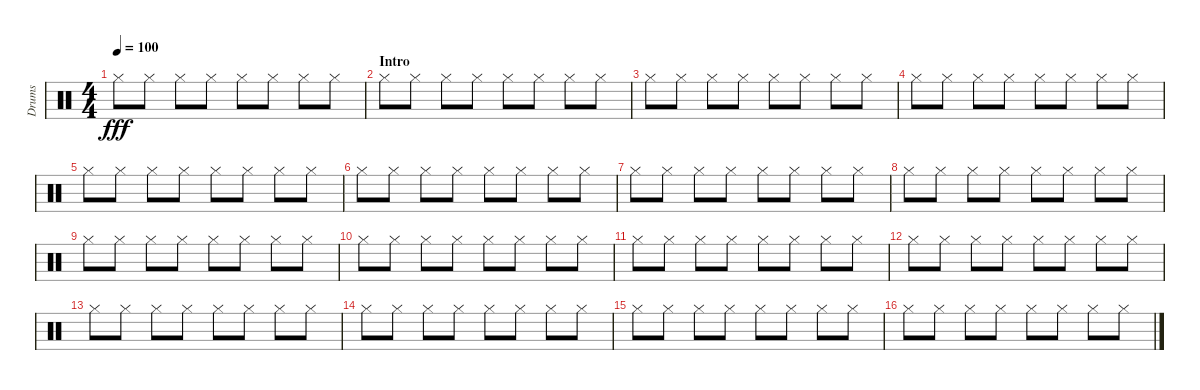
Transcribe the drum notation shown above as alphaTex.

\defaultSystemsLayout 4
\bracketExtendMode groupsimilarinstruments
\otherSystemsTrackNameOrientation horizontal
\track ("Prakarsh" "Drums") {instrument percussion}
\staff {score}
\articulation defaults
\ts (4 4)
\tempo 100
\clef neutral
\ks c "Hi-Hat (closed)".8{dy fff beam Down} "Hi-Hat (closed)".8{beam Down} "Hi-Hat (closed)".8{beam Down} "Hi-Hat (closed)".8{beam Down} "Hi-Hat (closed)".8{beam Down} "Hi-Hat (closed)".8{beam Down} "Hi-Hat (closed)".8{beam Down} "Hi-Hat (closed)".8{beam Down}
|
\section ("" "Intro")
"Hi-Hat (closed)".8{beam Down} "Hi-Hat (closed)".8{beam Down} "Hi-Hat (closed)".8{beam Down} "Hi-Hat (closed)".8{beam Down} "Hi-Hat (closed)".8{beam Down} "Hi-Hat (closed)".8{beam Down} "Hi-Hat (closed)".8{beam Down} "Hi-Hat (closed)".8{beam Down} |
"Hi-Hat (closed)".8{beam Down} "Hi-Hat (closed)".8{beam Down} "Hi-Hat (closed)".8{beam Down} "Hi-Hat (closed)".8{beam Down} "Hi-Hat (closed)".8{beam Down} "Hi-Hat (closed)".8{beam Down} "Hi-Hat (closed)".8{beam Down} "Hi-Hat (closed)".8{beam Down} |
"Hi-Hat (closed)".8{beam Down} "Hi-Hat (closed)".8{beam Down} "Hi-Hat (closed)".8{beam Down} "Hi-Hat (closed)".8{beam Down} "Hi-Hat (closed)".8{beam Down} "Hi-Hat (closed)".8{beam Down} "Hi-Hat (closed)".8{beam Down} "Hi-Hat (closed)".8{beam Down} |
"Hi-Hat (closed)".8{beam Down} "Hi-Hat (closed)".8{beam Down} "Hi-Hat (closed)".8{beam Down} "Hi-Hat (closed)".8{beam Down} "Hi-Hat (closed)".8{beam Down} "Hi-Hat (closed)".8{beam Down} "Hi-Hat (closed)".8{beam Down} "Hi-Hat (closed)".8{beam Down} |
"Hi-Hat (closed)".8{beam Down} "Hi-Hat (closed)".8{beam Down} "Hi-Hat (closed)".8{beam Down} "Hi-Hat (closed)".8{beam Down} "Hi-Hat (closed)".8{beam Down} "Hi-Hat (closed)".8{beam Down} "Hi-Hat (closed)".8{beam Down} "Hi-Hat (closed)".8{beam Down} |
"Hi-Hat (closed)".8{beam Down} "Hi-Hat (closed)".8{beam Down} "Hi-Hat (closed)".8{beam Down} "Hi-Hat (closed)".8{beam Down} "Hi-Hat (closed)".8{beam Down} "Hi-Hat (closed)".8{beam Down} "Hi-Hat (closed)".8{beam Down} "Hi-Hat (closed)".8{beam Down} |
"Hi-Hat (closed)".8{beam Down} "Hi-Hat (closed)".8{beam Down} "Hi-Hat (closed)".8{beam Down} "Hi-Hat (closed)".8{beam Down} "Hi-Hat (closed)".8{beam Down} "Hi-Hat (closed)".8{beam Down} "Hi-Hat (closed)".8{beam Down} "Hi-Hat (closed)".8{beam Down} |
"Hi-Hat (closed)".8{beam Down} "Hi-Hat (closed)".8{beam Down} "Hi-Hat (closed)".8{beam Down} "Hi-Hat (closed)".8{beam Down} "Hi-Hat (closed)".8{beam Down} "Hi-Hat (closed)".8{beam Down} "Hi-Hat (closed)".8{beam Down} "Hi-Hat (closed)".8{beam Down} |
"Hi-Hat (closed)".8{beam Down} "Hi-Hat (closed)".8{beam Down} "Hi-Hat (closed)".8{beam Down} "Hi-Hat (closed)".8{beam Down} "Hi-Hat (closed)".8{beam Down} "Hi-Hat (closed)".8{beam Down} "Hi-Hat (closed)".8{beam Down} "Hi-Hat (closed)".8{beam Down} |
"Hi-Hat (closed)".8{beam Down} "Hi-Hat (closed)".8{beam Down} "Hi-Hat (closed)".8{beam Down} "Hi-Hat (closed)".8{beam Down} "Hi-Hat (closed)".8{beam Down} "Hi-Hat (closed)".8{beam Down} "Hi-Hat (closed)".8{beam Down} "Hi-Hat (closed)".8{beam Down} |
"Hi-Hat (closed)".8{beam Down} "Hi-Hat (closed)".8{beam Down} "Hi-Hat (closed)".8{beam Down} "Hi-Hat (closed)".8{beam Down} "Hi-Hat (closed)".8{beam Down} "Hi-Hat (closed)".8{beam Down} "Hi-Hat (closed)".8{beam Down} "Hi-Hat (closed)".8{beam Down} |
"Hi-Hat (closed)".8{beam Down} "Hi-Hat (closed)".8{beam Down} "Hi-Hat (closed)".8{beam Down} "Hi-Hat (closed)".8{beam Down} "Hi-Hat (closed)".8{beam Down} "Hi-Hat (closed)".8{beam Down} "Hi-Hat (closed)".8{beam Down} "Hi-Hat (closed)".8{beam Down} |
"Hi-Hat (closed)".8{beam Down} "Hi-Hat (closed)".8{beam Down} "Hi-Hat (closed)".8{beam Down} "Hi-Hat (closed)".8{beam Down} "Hi-Hat (closed)".8{beam Down} "Hi-Hat (closed)".8{beam Down} "Hi-Hat (closed)".8{beam Down} "Hi-Hat (closed)".8{beam Down} |
"Hi-Hat (closed)".8{beam Down} "Hi-Hat (closed)".8{beam Down} "Hi-Hat (closed)".8{beam Down} "Hi-Hat (closed)".8{beam Down} "Hi-Hat (closed)".8{beam Down} "Hi-Hat (closed)".8{beam Down} "Hi-Hat (closed)".8{beam Down} "Hi-Hat (closed)".8{beam Down} |
"Hi-Hat (closed)".8{beam Down} "Hi-Hat (closed)".8{beam Down} "Hi-Hat (closed)".8{beam Down} "Hi-Hat (closed)".8{beam Down} "Hi-Hat (closed)".8{beam Down} "Hi-Hat (closed)".8{beam Down} "Hi-Hat (closed)".8{beam Down} "Hi-Hat (closed)".8{beam Down}
